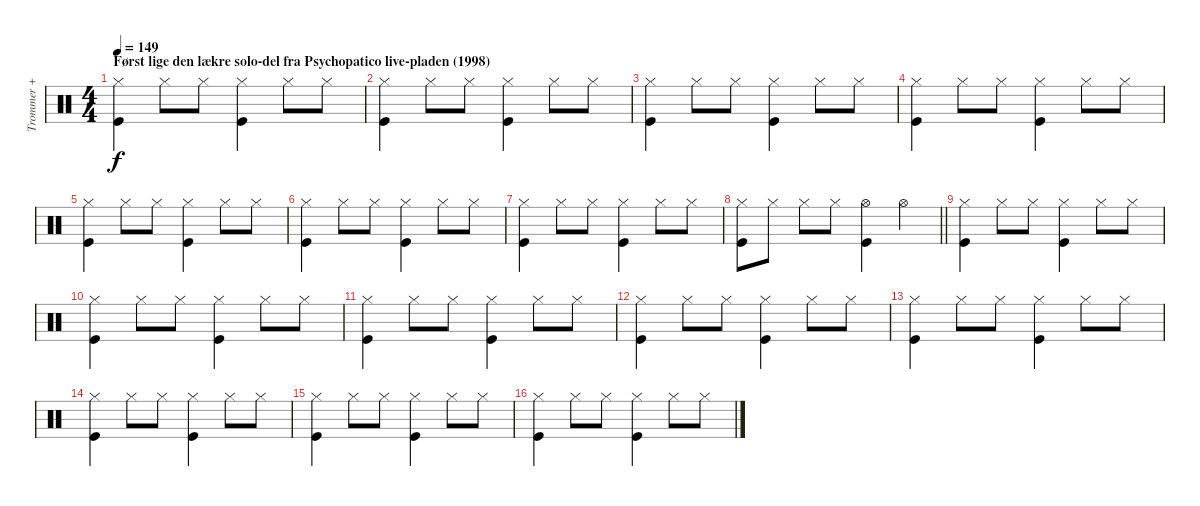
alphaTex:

\track ("Trommer + rasle-æg" "Trommer + ") {instrument percussion}
\staff {score}
\articulation defaults
\ts (4 4)
\section ("" "Først lige den lækre solo-del fra Psychopatico live-pladen (1998)")
\tempo 149
\clef neutral
\ks c
("Hi-Hat (closed)" "Kick (hit)").4{dy f volume 0} "Hi-Hat (closed)".8{volume 9} "Hi-Hat (closed)".8 ("Hi-Hat (closed)" "Kick (hit)").4 "Hi-Hat (closed)".8 "Hi-Hat (closed)".8 |
("Hi-Hat (closed)" "Kick (hit)").4 "Hi-Hat (closed)".8 "Hi-Hat (closed)".8 ("Hi-Hat (closed)" "Kick (hit)").4 "Hi-Hat (closed)".8 "Hi-Hat (closed)".8 |
("Hi-Hat (closed)" "Kick (hit)").4 "Hi-Hat (closed)".8 "Hi-Hat (closed)".8 ("Hi-Hat (closed)" "Kick (hit)").4 "Hi-Hat (closed)".8 "Hi-Hat (closed)".8 |
("Hi-Hat (closed)" "Kick (hit)").4 "Hi-Hat (closed)".8 "Hi-Hat (closed)".8 ("Hi-Hat (closed)" "Kick (hit)").4 "Hi-Hat (closed)".8 "Hi-Hat (closed)".8 |
("Hi-Hat (closed)" "Kick (hit)").4 "Hi-Hat (closed)".8 "Hi-Hat (closed)".8 ("Hi-Hat (closed)" "Kick (hit)").4 "Hi-Hat (closed)".8 "Hi-Hat (closed)".8 |
("Hi-Hat (closed)" "Kick (hit)").4 "Hi-Hat (closed)".8 "Hi-Hat (closed)".8 ("Hi-Hat (closed)" "Kick (hit)").4 "Hi-Hat (closed)".8 "Hi-Hat (closed)".8 |
("Hi-Hat (closed)" "Kick (hit)").4 "Hi-Hat (closed)".8 "Hi-Hat (closed)".8 ("Hi-Hat (closed)" "Kick (hit)").4 "Hi-Hat (closed)".8 "Hi-Hat (closed)".8 |
\barLineRight lightlight
("Hi-Hat (closed)" "Kick (hit)").8 "Hi-Hat (closed)".8 "Hi-Hat (closed)".8 "Hi-Hat (closed)".8 ("Hi-Hat (open)" "Kick (hit)").4 "Hi-Hat (open)".4 |
("Hi-Hat (closed)" "Kick (hit)").4 "Hi-Hat (closed)".8 "Hi-Hat (closed)".8 ("Hi-Hat (closed)" "Kick (hit)").4 "Hi-Hat (closed)".8 "Hi-Hat (closed)".8 |
("Hi-Hat (closed)" "Kick (hit)").4 "Hi-Hat (closed)".8 "Hi-Hat (closed)".8 ("Hi-Hat (closed)" "Kick (hit)").4 "Hi-Hat (closed)".8 "Hi-Hat (closed)".8 |
("Hi-Hat (closed)" "Kick (hit)").4 "Hi-Hat (closed)".8 "Hi-Hat (closed)".8 ("Hi-Hat (closed)" "Kick (hit)").4 "Hi-Hat (closed)".8 "Hi-Hat (closed)".8 |
("Hi-Hat (closed)" "Kick (hit)").4 "Hi-Hat (closed)".8 "Hi-Hat (closed)".8 ("Hi-Hat (closed)" "Kick (hit)").4 "Hi-Hat (closed)".8 "Hi-Hat (closed)".8 |
("Hi-Hat (closed)" "Kick (hit)").4 "Hi-Hat (closed)".8 "Hi-Hat (closed)".8 ("Hi-Hat (closed)" "Kick (hit)").4 "Hi-Hat (closed)".8 "Hi-Hat (closed)".8 |
("Hi-Hat (closed)" "Kick (hit)").4 "Hi-Hat (closed)".8 "Hi-Hat (closed)".8 ("Hi-Hat (closed)" "Kick (hit)").4 "Hi-Hat (closed)".8 "Hi-Hat (closed)".8 |
("Hi-Hat (closed)" "Kick (hit)").4 "Hi-Hat (closed)".8 "Hi-Hat (closed)".8 ("Hi-Hat (closed)" "Kick (hit)").4 "Hi-Hat (closed)".8 "Hi-Hat (closed)".8 |
("Hi-Hat (closed)" "Kick (hit)").4 "Hi-Hat (closed)".8 "Hi-Hat (closed)".8 ("Hi-Hat (closed)" "Kick (hit)").4 "Hi-Hat (closed)".8 "Hi-Hat (closed)".8
